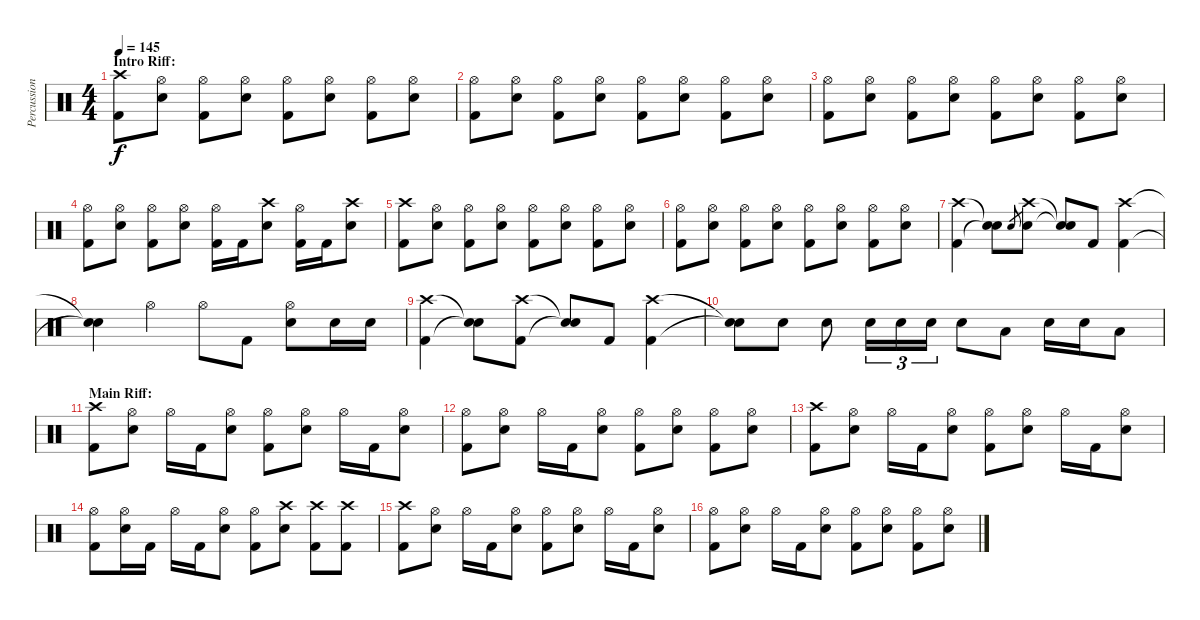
\track ("Percussion" "Percussion") {instrument percussion}
\staff {score}
\articulation defaults
\ts (4 4)
\section ("" "Intro Riff:")
\tempo 145
\clef neutral
\ks c
("Crash high (hit)" "Kick (hit) 2").8{dy f} ("Hi-Hat (open)" "Electric Snare (hit)").8 ("Hi-Hat (open)" "Kick (hit) 2").8 ("Hi-Hat (open)" "Electric Snare (hit)").8 ("Hi-Hat (open)" "Kick (hit) 2").8 ("Hi-Hat (open)" "Electric Snare (hit)").8 ("Hi-Hat (open)" "Kick (hit) 2").8 ("Hi-Hat (open)" "Electric Snare (hit)").8 |
("Hi-Hat (open)" "Kick (hit) 2").8 ("Hi-Hat (open)" "Electric Snare (hit)").8 ("Hi-Hat (open)" "Kick (hit) 2").8 ("Hi-Hat (open)" "Electric Snare (hit)").8 ("Hi-Hat (open)" "Kick (hit) 2").8 ("Hi-Hat (open)" "Electric Snare (hit)").8 ("Hi-Hat (open)" "Kick (hit) 2").8 ("Hi-Hat (open)" "Electric Snare (hit)").8 |
("Hi-Hat (open)" "Kick (hit) 2").8 ("Hi-Hat (open)" "Electric Snare (hit)").8 ("Hi-Hat (open)" "Kick (hit) 2").8 ("Hi-Hat (open)" "Electric Snare (hit)").8 ("Hi-Hat (open)" "Kick (hit) 2").8 ("Hi-Hat (open)" "Electric Snare (hit)").8 ("Hi-Hat (open)" "Kick (hit) 2").8 ("Hi-Hat (open)" "Electric Snare (hit)").8 |
("Hi-Hat (open)" "Kick (hit) 2").8 ("Hi-Hat (open)" "Electric Snare (hit)").8 ("Hi-Hat (open)" "Kick (hit) 2").8 ("Hi-Hat (open)" "Electric Snare (hit)").8 ("Hi-Hat (open)" "Kick (hit) 2").16 "Kick (hit) 2".16 ("Crash high (hit)" "Electric Snare (hit)").8 ("Hi-Hat (open)" "Kick (hit) 2").16 "Kick (hit) 2".16 ("Crash high (hit)" "Electric Snare (hit)").8 |
("Crash high (hit)" "Kick (hit) 2").8 ("Hi-Hat (open)" "Electric Snare (hit)").8 ("Hi-Hat (open)" "Kick (hit) 2").8 ("Hi-Hat (open)" "Electric Snare (hit)").8 ("Hi-Hat (open)" "Kick (hit) 2").8 ("Hi-Hat (open)" "Electric Snare (hit)").8 ("Hi-Hat (open)" "Kick (hit) 2").8 ("Hi-Hat (open)" "Electric Snare (hit)").8 |
("Hi-Hat (open)" "Kick (hit) 2").8 ("Hi-Hat (open)" "Electric Snare (hit)").8 ("Hi-Hat (open)" "Kick (hit) 2").8 ("Hi-Hat (open)" "Electric Snare (hit)").8 ("Hi-Hat (open)" "Kick (hit) 2").8 ("Hi-Hat (open)" "Electric Snare (hit)").8 ("Hi-Hat (open)" "Kick (hit) 2").8 ("Hi-Hat (open)" "Electric Snare (hit)").8 |
("Crash high (hit)" "Kick (hit) 2").4 ("Snare (hit)"{t} "Snare (hit)"{t}).8 "Electric Snare (hit)".8{gr} ("Crash high (hit)" "Electric Snare (hit)").8 ("Snare (hit)"{t} "Snare (hit)"{t}).8 "Kick (hit) 2".8 ("Crash high (hit)" "Kick (hit) 2").4 |
("Snare (hit)"{t} "Snare (hit)"{t}).4 "Hi-Hat (open)".4 "Hi-Hat (open)".8 "Kick (hit) 2".8 ("Hi-Hat (open)" "Electric Snare (hit)").8 "Electric Snare (hit)".16 "Electric Snare (hit)".16 |
("Crash high (hit)" "Kick (hit) 2").4 ("Snare (hit)"{t} "Snare (hit)"{t}).8 ("Crash high (hit)" "Kick (hit) 2").8 ("Snare (hit)"{t} "Snare (hit)"{t}).8 "Kick (hit) 2".8 ("Crash high (hit)" "Kick (hit) 2").4 |
("Snare (hit)"{t} "Snare (hit)"{t}).8 "Electric Snare (hit)".8 "Electric Snare (hit)".8 "Electric Snare (hit)".16{tu (3 2)} "Electric Snare (hit)".16{tu (3 2)} "Electric Snare (hit)".16{tu (3 2)} "Electric Snare (hit)".8 "Low Floor Tom (hit)".8 "Electric Snare (hit)".16 "Electric Snare (hit)".16 "Low Floor Tom (hit)".8 |
\section ("" "Main Riff:")
("Crash high (hit)" "Kick (hit) 2").8 ("Hi-Hat (open)" "Electric Snare (hit)").8 "Hi-Hat (open)".16 "Kick (hit) 2".16 ("Hi-Hat (open)" "Electric Snare (hit)").8 ("Hi-Hat (open)" "Kick (hit) 2").8 ("Hi-Hat (open)" "Electric Snare (hit)").8 "Hi-Hat (open)".16 "Kick (hit) 2".16 ("Hi-Hat (open)" "Electric Snare (hit)").8 |
("Hi-Hat (open)" "Kick (hit) 2").8 ("Hi-Hat (open)" "Electric Snare (hit)").8 "Hi-Hat (open)".16 "Kick (hit) 2".16 ("Hi-Hat (open)" "Electric Snare (hit)").8 ("Hi-Hat (open)" "Kick (hit) 2").8 ("Hi-Hat (open)" "Electric Snare (hit)").8 ("Hi-Hat (open)" "Kick (hit) 2").8 ("Hi-Hat (open)" "Electric Snare (hit)").8 |
("Crash high (hit)" "Kick (hit) 2").8 ("Hi-Hat (open)" "Electric Snare (hit)").8 "Hi-Hat (open)".16 "Kick (hit) 2".16 ("Hi-Hat (open)" "Electric Snare (hit)").8 ("Hi-Hat (open)" "Kick (hit) 2").8 ("Hi-Hat (open)" "Electric Snare (hit)").8 "Hi-Hat (open)".16 "Kick (hit) 2".16 ("Hi-Hat (open)" "Electric Snare (hit)").8 |
("Hi-Hat (open)" "Kick (hit) 2").8 ("Hi-Hat (open)" "Electric Snare (hit)").16 "Kick (hit) 2".16 "Hi-Hat (open)".16 "Kick (hit) 2".16 ("Hi-Hat (open)" "Electric Snare (hit)").8 ("Hi-Hat (open)" "Kick (hit) 2").8 ("Crash high (hit)" "Electric Snare (hit)").8 ("Crash high (hit)" "Kick (hit) 2").8 ("Crash high (hit)" "Kick (hit) 2").8 |
("Crash high (hit)" "Kick (hit) 2").8 ("Hi-Hat (open)" "Electric Snare (hit)").8 "Hi-Hat (open)".16 "Kick (hit) 2".16 ("Hi-Hat (open)" "Electric Snare (hit)").8 ("Hi-Hat (open)" "Kick (hit) 2").8 ("Hi-Hat (open)" "Electric Snare (hit)").8 "Hi-Hat (open)".16 "Kick (hit) 2".16 ("Hi-Hat (open)" "Electric Snare (hit)").8 |
("Hi-Hat (open)" "Kick (hit) 2").8 ("Hi-Hat (open)" "Electric Snare (hit)").8 "Hi-Hat (open)".16 "Kick (hit) 2".16 ("Hi-Hat (open)" "Electric Snare (hit)").8 ("Hi-Hat (open)" "Kick (hit) 2").8 ("Hi-Hat (open)" "Electric Snare (hit)").8 ("Hi-Hat (open)" "Kick (hit) 2").8 ("Hi-Hat (open)" "Electric Snare (hit)").8
